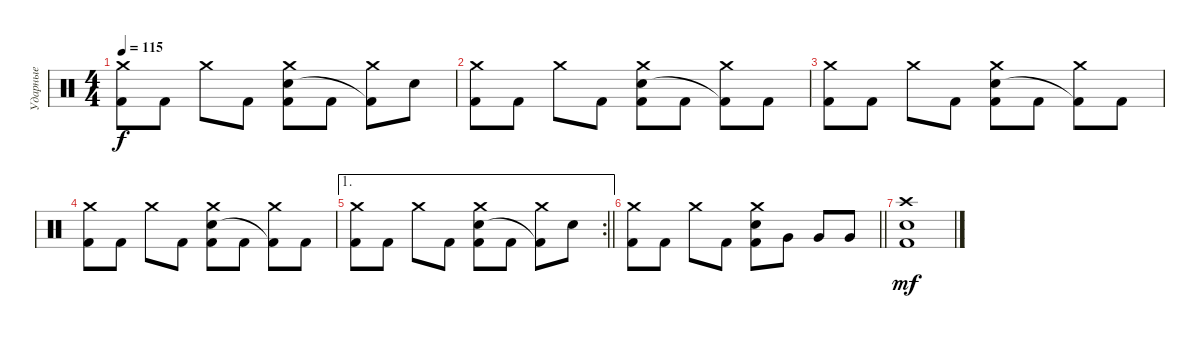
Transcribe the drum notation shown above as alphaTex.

\track ("Ударные" "Ударные") {instrument percussion}
\staff {score}
\articulation defaults
\ts (4 4)
\tempo 115
\clef neutral
\ks c
("Crash medium (hit)" "Kick (hit) 2").8{dy f} "Kick (hit) 2".8 "Crash medium (hit)".8 "Kick (hit) 2".8 ("Crash medium (hit)" "Snare (hit) 2" "Kick (hit) 2").8 "Kick (hit) 2".8 ("Crash medium (hit)" "Kick (hit) 2"{t}).8 "Snare (hit) 2".8 |
("Crash medium (hit)" "Kick (hit) 2").8 "Kick (hit) 2".8 "Crash medium (hit)".8 "Kick (hit) 2".8 ("Crash medium (hit)" "Snare (hit) 2" "Kick (hit) 2").8 "Kick (hit) 2".8 ("Crash medium (hit)" "Kick (hit) 2"{t}).8 "Kick (hit) 2".8 |
("Crash medium (hit)" "Kick (hit) 2").8 "Kick (hit) 2".8 "Crash medium (hit)".8 "Kick (hit) 2".8 ("Crash medium (hit)" "Snare (hit) 2" "Kick (hit) 2").8 "Kick (hit) 2".8 ("Crash medium (hit)" "Kick (hit) 2"{t}).8 "Kick (hit) 2".8 |
("Crash medium (hit)" "Kick (hit) 2").8 "Kick (hit) 2".8 "Crash medium (hit)".8 "Kick (hit) 2".8 ("Crash medium (hit)" "Snare (hit) 2" "Kick (hit) 2").8 "Kick (hit) 2".8 ("Crash medium (hit)" "Kick (hit) 2"{t}).8 "Kick (hit) 2".8 |
\ae 1
\rc 2
\barLineRight lightlight
("Crash medium (hit)" "Kick (hit) 2").8 "Kick (hit) 2".8 "Crash medium (hit)".8 "Kick (hit) 2".8 ("Crash medium (hit)" "Snare (hit) 2" "Kick (hit) 2").8 "Kick (hit) 2".8 ("Crash medium (hit)" "Kick (hit) 2"{t}).8 "Snare (hit) 2".8 |
\barLineRight lightlight
("Crash medium (hit)" "Kick (hit) 2").8 "Kick (hit) 2".8 "Crash medium (hit)".8 "Kick (hit) 2".8 ("Crash medium (hit)" "Snare (hit) 2" "Kick (hit) 2").8 "Very Low Tom (hit)".8 "Very Low Tom (hit)".8 "Very Low Tom (hit)".8 |
("Crash high (hit)" "Snare (hit) 2" "Kick (hit) 2").1{dy mf}
